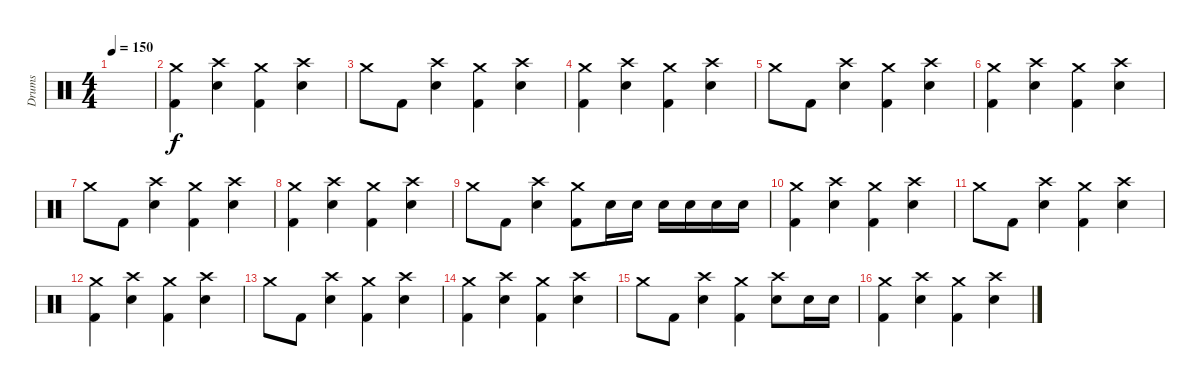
\track ("Drums" "Drums") {instrument percussion}
\staff {score}
\articulation defaults
\ts (4 4)
\tempo 150
\clef neutral
\ks c
|
("Crash medium (hit)" "Kick (hit) 2").4 ("Crash high (hit)" "Snare (hit) 2").4 ("Crash medium (hit)" "Kick (hit) 2").4 ("Crash high (hit)" "Snare (hit) 2").4 |
"Crash medium (hit)".8 "Kick (hit) 2".8 ("Crash high (hit)" "Snare (hit) 2").4 ("Crash medium (hit)" "Kick (hit) 2").4 ("Crash high (hit)" "Snare (hit) 2").4 |
("Crash medium (hit)" "Kick (hit) 2").4 ("Crash high (hit)" "Snare (hit) 2").4 ("Crash medium (hit)" "Kick (hit) 2").4 ("Crash high (hit)" "Snare (hit) 2").4 |
"Crash medium (hit)".8 "Kick (hit) 2".8 ("Crash high (hit)" "Snare (hit) 2").4 ("Crash medium (hit)" "Kick (hit) 2").4 ("Crash high (hit)" "Snare (hit) 2").4 |
("Crash medium (hit)" "Kick (hit) 2").4 ("Crash high (hit)" "Snare (hit) 2").4 ("Crash medium (hit)" "Kick (hit) 2").4 ("Crash high (hit)" "Snare (hit) 2").4 |
"Crash medium (hit)".8 "Kick (hit) 2".8 ("Crash high (hit)" "Snare (hit) 2").4 ("Crash medium (hit)" "Kick (hit) 2").4 ("Crash high (hit)" "Snare (hit) 2").4 |
("Crash medium (hit)" "Kick (hit) 2").4 ("Crash high (hit)" "Snare (hit) 2").4 ("Crash medium (hit)" "Kick (hit) 2").4 ("Crash high (hit)" "Snare (hit) 2").4 |
"Crash medium (hit)".8 "Kick (hit) 2".8 ("Crash high (hit)" "Snare (hit) 2").4 ("Crash medium (hit)" "Kick (hit) 2").8 "Snare (hit) 2".16 "Snare (hit) 2".16 "Snare (hit) 2".16 "Snare (hit) 2".16 "Snare (hit) 2".16 "Snare (hit) 2".16 |
("Crash medium (hit)" "Kick (hit) 2").4 ("Crash high (hit)" "Snare (hit) 2").4 ("Crash medium (hit)" "Kick (hit) 2").4 ("Crash high (hit)" "Snare (hit) 2").4 |
"Crash medium (hit)".8 "Kick (hit) 2".8 ("Crash high (hit)" "Snare (hit) 2").4 ("Crash medium (hit)" "Kick (hit) 2").4 ("Crash high (hit)" "Snare (hit) 2").4 |
("Crash medium (hit)" "Kick (hit) 2").4 ("Crash high (hit)" "Snare (hit) 2").4 ("Crash medium (hit)" "Kick (hit) 2").4 ("Crash high (hit)" "Snare (hit) 2").4 |
"Crash medium (hit)".8 "Kick (hit) 2".8 ("Crash high (hit)" "Snare (hit) 2").4 ("Crash medium (hit)" "Kick (hit) 2").4 ("Crash high (hit)" "Snare (hit) 2").4 |
("Crash medium (hit)" "Kick (hit) 2").4 ("Crash high (hit)" "Snare (hit) 2").4 ("Crash medium (hit)" "Kick (hit) 2").4 ("Crash high (hit)" "Snare (hit) 2").4 |
"Crash medium (hit)".8 "Kick (hit) 2".8 ("Crash high (hit)" "Snare (hit) 2").4 ("Crash medium (hit)" "Kick (hit) 2").4 ("Crash high (hit)" "Snare (hit) 2").8 "Electric Snare (hit)".16 "Electric Snare (hit)".16 |
("Crash medium (hit)" "Kick (hit) 2").4 ("Crash high (hit)" "Snare (hit) 2").4 ("Crash medium (hit)" "Kick (hit) 2").4 ("Crash high (hit)" "Snare (hit) 2").4
